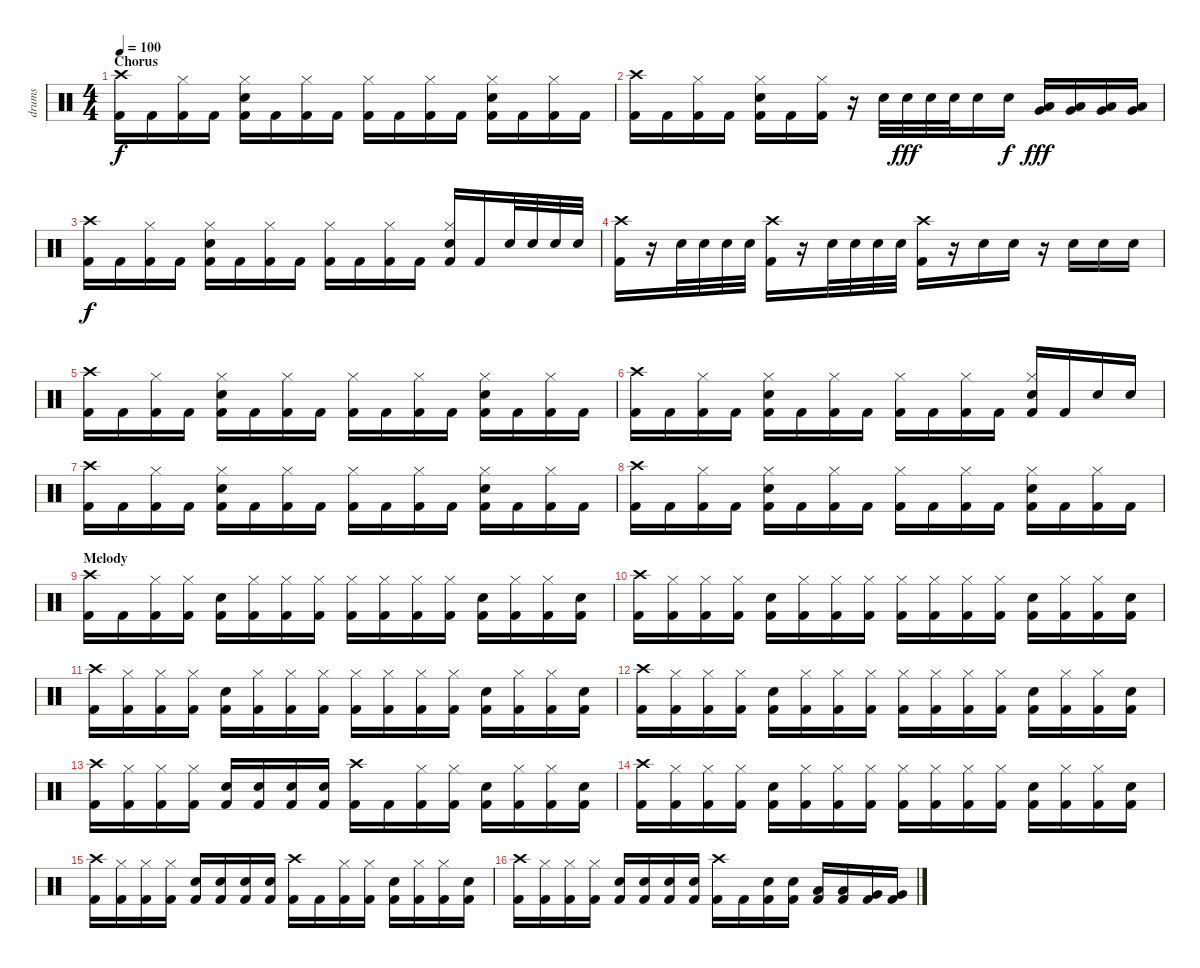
\track ("drums" "drums") {instrument percussion}
\staff {score}
\articulation defaults
\ts (4 4)
\section ("" "Chorus")
\tempo 100
\clef neutral
\ks c
("Crash high (hit)" "Kick (hit) 2").16{dy f} "Kick (hit) 2".16 ("Hi-Hat (closed)" "Kick (hit) 2").16 "Kick (hit) 2".16 ("Hi-Hat (closed)" "Snare (hit) 2" "Kick (hit) 2").16 "Kick (hit) 2".16 ("Hi-Hat (closed)" "Kick (hit) 2").16 "Kick (hit) 2".16 ("Hi-Hat (closed)" "Kick (hit) 2").16 "Kick (hit) 2".16 ("Hi-Hat (closed)" "Kick (hit) 2").16 "Kick (hit) 2".16 ("Hi-Hat (closed)" "Snare (hit) 2" "Kick (hit) 2").16 "Kick (hit) 2".16 ("Hi-Hat (closed)" "Kick (hit) 2").16 "Kick (hit) 2".16 |
("Crash high (hit)" "Kick (hit) 2").16 "Kick (hit) 2".16 ("Hi-Hat (closed)" "Kick (hit) 2").16 "Kick (hit) 2".16 ("Hi-Hat (closed)" "Snare (hit) 2" "Kick (hit) 2").16 "Kick (hit) 2".16 ("Hi-Hat (closed)" "Kick (hit) 2").16 r.16 "Snare (hit) 2".32 "Snare (hit) 2".32{dy fff} "Snare (hit) 2".32 "Snare (hit) 2".32 "Snare (hit) 2".16 "Snare (hit) 2".16{dy f} ("Low Tom (hit)" "Very Low Tom (hit)").16{dy fff} ("Low Tom (hit)" "Very Low Tom (hit)").16 ("Very Low Tom (hit)" "Low Floor Tom (hit)").16 ("Very Low Tom (hit)" "Low Floor Tom (hit)").16 |
("Crash high (hit)" "Kick (hit) 2").16{dy f} "Kick (hit) 2".16 ("Hi-Hat (closed)" "Kick (hit) 2").16 "Kick (hit) 2".16 ("Hi-Hat (closed)" "Snare (hit) 2" "Kick (hit) 2").16 "Kick (hit) 2".16 ("Hi-Hat (closed)" "Kick (hit) 2").16 "Kick (hit) 2".16 ("Hi-Hat (closed)" "Kick (hit) 2").16 "Kick (hit) 2".16 ("Hi-Hat (closed)" "Kick (hit) 2").16 "Kick (hit) 2".16 ("Hi-Hat (closed)" "Snare (hit) 2" "Kick (hit) 2").16 "Kick (hit) 2".16 "Snare (hit) 2".32 "Snare (hit) 2".32 "Snare (hit) 2".32 "Snare (hit) 2".32 |
("Crash high (hit)" "Kick (hit) 2").16 r.16 "Snare (hit) 2".32 "Snare (hit) 2".32 "Snare (hit) 2".32 "Snare (hit) 2".32 ("Crash high (hit)" "Kick (hit) 2").16 r.16 "Snare (hit) 2".32 "Snare (hit) 2".32 "Snare (hit) 2".32 "Snare (hit) 2".32 ("Crash high (hit)" "Kick (hit) 2").16 r.16 "Snare (hit) 2".16 "Snare (hit) 2".16 r.16 "Snare (hit) 2".16 "Snare (hit) 2".16 "Snare (hit) 2".16 |
("Crash high (hit)" "Kick (hit) 2").16 "Kick (hit) 2".16 ("Hi-Hat (closed)" "Kick (hit) 2").16 "Kick (hit) 2".16 ("Hi-Hat (closed)" "Snare (hit) 2" "Kick (hit) 2").16 "Kick (hit) 2".16 ("Hi-Hat (closed)" "Kick (hit) 2").16 "Kick (hit) 2".16 ("Hi-Hat (closed)" "Kick (hit) 2").16 "Kick (hit) 2".16 ("Hi-Hat (closed)" "Kick (hit) 2").16 "Kick (hit) 2".16 ("Hi-Hat (closed)" "Snare (hit) 2" "Kick (hit) 2").16 "Kick (hit) 2".16 ("Hi-Hat (closed)" "Kick (hit) 2").16 "Kick (hit) 2".16 |
("Crash high (hit)" "Kick (hit) 2").16 "Kick (hit) 2".16 ("Hi-Hat (closed)" "Kick (hit) 2").16 "Kick (hit) 2".16 ("Hi-Hat (closed)" "Snare (hit) 2" "Kick (hit) 2").16 "Kick (hit) 2".16 ("Hi-Hat (closed)" "Kick (hit) 2").16 "Kick (hit) 2".16 ("Hi-Hat (closed)" "Kick (hit) 2").16 "Kick (hit) 2".16 ("Hi-Hat (closed)" "Kick (hit) 2").16 "Kick (hit) 2".16 ("Hi-Hat (closed)" "Snare (hit) 2" "Kick (hit) 2").16 "Kick (hit) 2".16 "Snare (hit) 2".16 "Snare (hit) 2".16 |
("Crash high (hit)" "Kick (hit) 2").16 "Kick (hit) 2".16 ("Hi-Hat (closed)" "Kick (hit) 2").16 "Kick (hit) 2".16 ("Hi-Hat (closed)" "Snare (hit) 2" "Kick (hit) 2").16 "Kick (hit) 2".16 ("Hi-Hat (closed)" "Kick (hit) 2").16 "Kick (hit) 2".16 ("Hi-Hat (closed)" "Kick (hit) 2").16 "Kick (hit) 2".16 ("Hi-Hat (closed)" "Kick (hit) 2").16 "Kick (hit) 2".16 ("Hi-Hat (closed)" "Snare (hit) 2" "Kick (hit) 2").16 "Kick (hit) 2".16 ("Hi-Hat (closed)" "Kick (hit) 2").16 "Kick (hit) 2".16 |
("Crash high (hit)" "Kick (hit) 2").16 "Kick (hit) 2".16 ("Hi-Hat (closed)" "Kick (hit) 2").16 "Kick (hit) 2".16 ("Hi-Hat (closed)" "Snare (hit) 2" "Kick (hit) 2").16 "Kick (hit) 2".16 ("Hi-Hat (closed)" "Kick (hit) 2").16 "Kick (hit) 2".16 ("Hi-Hat (closed)" "Kick (hit) 2").16 "Kick (hit) 2".16 ("Hi-Hat (closed)" "Kick (hit) 2").16 "Kick (hit) 2".16 ("Hi-Hat (closed)" "Snare (hit) 2" "Kick (hit) 2").16 "Kick (hit) 2".16 ("Hi-Hat (closed)" "Kick (hit) 2").16 "Kick (hit) 2".16 |
\section ("" "Melody")
("Crash high (hit)" "Kick (hit) 2").16 "Kick (hit) 2".16 ("Hi-Hat (closed)" "Kick (hit) 2").16 ("Hi-Hat (closed)" "Kick (hit) 2").16 ("Snare (hit) 2" "Kick (hit) 2").16 ("Hi-Hat (closed)" "Kick (hit) 2").16 ("Hi-Hat (closed)" "Kick (hit) 2").16 ("Hi-Hat (closed)" "Kick (hit) 2").16 ("Hi-Hat (closed)" "Kick (hit) 2").16 ("Hi-Hat (closed)" "Kick (hit) 2").16 ("Hi-Hat (closed)" "Kick (hit) 2").16 ("Hi-Hat (closed)" "Kick (hit) 2").16 ("Snare (hit) 2" "Kick (hit) 2").16 ("Hi-Hat (closed)" "Kick (hit) 2").16 ("Hi-Hat (closed)" "Kick (hit) 2").16 ("Snare (hit) 2" "Kick (hit) 2").16 |
("Crash high (hit)" "Kick (hit) 2").16 ("Hi-Hat (closed)" "Kick (hit) 2").16 ("Hi-Hat (closed)" "Kick (hit) 2").16 ("Hi-Hat (closed)" "Kick (hit) 2").16 ("Snare (hit) 2" "Kick (hit) 2").16 ("Hi-Hat (closed)" "Kick (hit) 2").16 ("Hi-Hat (closed)" "Kick (hit) 2").16 ("Hi-Hat (closed)" "Kick (hit) 2").16 ("Hi-Hat (closed)" "Kick (hit) 2").16 ("Hi-Hat (closed)" "Kick (hit) 2").16 ("Hi-Hat (closed)" "Kick (hit) 2").16 ("Hi-Hat (closed)" "Kick (hit) 2").16 ("Snare (hit) 2" "Kick (hit) 2").16 ("Hi-Hat (closed)" "Kick (hit) 2").16 ("Hi-Hat (closed)" "Kick (hit) 2").16 ("Snare (hit) 2" "Kick (hit) 2").16 |
("Crash high (hit)" "Kick (hit) 2").16 ("Hi-Hat (closed)" "Kick (hit) 2").16 ("Hi-Hat (closed)" "Kick (hit) 2").16 ("Hi-Hat (closed)" "Kick (hit) 2").16 ("Snare (hit) 2" "Kick (hit) 2").16 ("Hi-Hat (closed)" "Kick (hit) 2").16 ("Hi-Hat (closed)" "Kick (hit) 2").16 ("Hi-Hat (closed)" "Kick (hit) 2").16 ("Hi-Hat (closed)" "Kick (hit) 2").16 ("Hi-Hat (closed)" "Kick (hit) 2").16 ("Hi-Hat (closed)" "Kick (hit) 2").16 ("Hi-Hat (closed)" "Kick (hit) 2").16 ("Snare (hit) 2" "Kick (hit) 2").16 ("Hi-Hat (closed)" "Kick (hit) 2").16 ("Hi-Hat (closed)" "Kick (hit) 2").16 ("Snare (hit) 2" "Kick (hit) 2").16 |
("Crash high (hit)" "Kick (hit) 2").16 ("Hi-Hat (closed)" "Kick (hit) 2").16 ("Hi-Hat (closed)" "Kick (hit) 2").16 ("Hi-Hat (closed)" "Kick (hit) 2").16 ("Snare (hit) 2" "Kick (hit) 2").16 ("Hi-Hat (closed)" "Kick (hit) 2").16 ("Hi-Hat (closed)" "Kick (hit) 2").16 ("Hi-Hat (closed)" "Kick (hit) 2").16 ("Hi-Hat (closed)" "Kick (hit) 2").16 ("Hi-Hat (closed)" "Kick (hit) 2").16 ("Hi-Hat (closed)" "Kick (hit) 2").16 ("Hi-Hat (closed)" "Kick (hit) 2").16 ("Snare (hit) 2" "Kick (hit) 2").16 ("Hi-Hat (closed)" "Kick (hit) 2").16 ("Hi-Hat (closed)" "Kick (hit) 2").16 ("Snare (hit) 2" "Kick (hit) 2").16 |
("Crash high (hit)" "Kick (hit) 2").16 ("Hi-Hat (closed)" "Kick (hit) 2").16 ("Hi-Hat (closed)" "Kick (hit) 2").16 ("Hi-Hat (closed)" "Kick (hit) 2").16 ("Snare (hit) 2" "Kick (hit) 2").16 ("Snare (hit) 2" "Kick (hit) 2").16 ("Snare (hit) 2" "Kick (hit) 2").16 ("Snare (hit) 2" "Kick (hit) 2").16 ("Crash high (hit)" "Kick (hit) 2").16 "Kick (hit) 2".16 ("Hi-Hat (closed)" "Kick (hit) 2").16 ("Hi-Hat (closed)" "Kick (hit) 2").16 ("Snare (hit) 2" "Kick (hit) 2").16 ("Hi-Hat (closed)" "Kick (hit) 2").16 ("Hi-Hat (closed)" "Kick (hit) 2").16 ("Snare (hit) 2" "Kick (hit) 2").16 |
("Crash high (hit)" "Kick (hit) 2").16 ("Hi-Hat (closed)" "Kick (hit) 2").16 ("Hi-Hat (closed)" "Kick (hit) 2").16 ("Hi-Hat (closed)" "Kick (hit) 2").16 ("Snare (hit) 2" "Kick (hit) 2").16 ("Hi-Hat (closed)" "Kick (hit) 2").16 ("Hi-Hat (closed)" "Kick (hit) 2").16 ("Hi-Hat (closed)" "Kick (hit) 2").16 ("Hi-Hat (closed)" "Kick (hit) 2").16 ("Hi-Hat (closed)" "Kick (hit) 2").16 ("Hi-Hat (closed)" "Kick (hit) 2").16 ("Hi-Hat (closed)" "Kick (hit) 2").16 ("Snare (hit) 2" "Kick (hit) 2").16 ("Hi-Hat (closed)" "Kick (hit) 2").16 ("Hi-Hat (closed)" "Kick (hit) 2").16 ("Snare (hit) 2" "Kick (hit) 2").16 |
("Crash high (hit)" "Kick (hit) 2").16 ("Hi-Hat (closed)" "Kick (hit) 2").16 ("Hi-Hat (closed)" "Kick (hit) 2").16 ("Hi-Hat (closed)" "Kick (hit) 2").16 ("Snare (hit) 2" "Kick (hit) 2").16 ("Snare (hit) 2" "Kick (hit) 2").16 ("Snare (hit) 2" "Kick (hit) 2").16 ("Snare (hit) 2" "Kick (hit) 2").16 ("Crash high (hit)" "Kick (hit) 2").16 "Kick (hit) 2".16 ("Hi-Hat (closed)" "Kick (hit) 2").16 ("Hi-Hat (closed)" "Kick (hit) 2").16 ("Snare (hit) 2" "Kick (hit) 2").16 ("Hi-Hat (closed)" "Kick (hit) 2").16 ("Hi-Hat (closed)" "Kick (hit) 2").16 ("Snare (hit) 2" "Kick (hit) 2").16 |
("Crash high (hit)" "Kick (hit) 2").16 ("Hi-Hat (closed)" "Kick (hit) 2").16 ("Hi-Hat (closed)" "Kick (hit) 2").16 ("Hi-Hat (closed)" "Kick (hit) 2").16 ("Snare (hit) 2" "Kick (hit) 2").16 ("Snare (hit) 2" "Kick (hit) 2").16 ("Snare (hit) 2" "Kick (hit) 2").16 ("Snare (hit) 2" "Kick (hit) 2").16 ("Crash high (hit)" "Kick (hit) 2").16 "Kick (hit) 2".16 ("Snare (hit) 2" "Kick (hit) 2").16 ("Snare (hit) 2" "Kick (hit) 2").16 ("Low Tom (hit)" "Kick (hit) 2").16 ("Low Tom (hit)" "Kick (hit) 2").16 ("Very Low Tom (hit)" "Kick (hit) 2").16 ("Very Low Tom (hit)" "Kick (hit) 2").16
